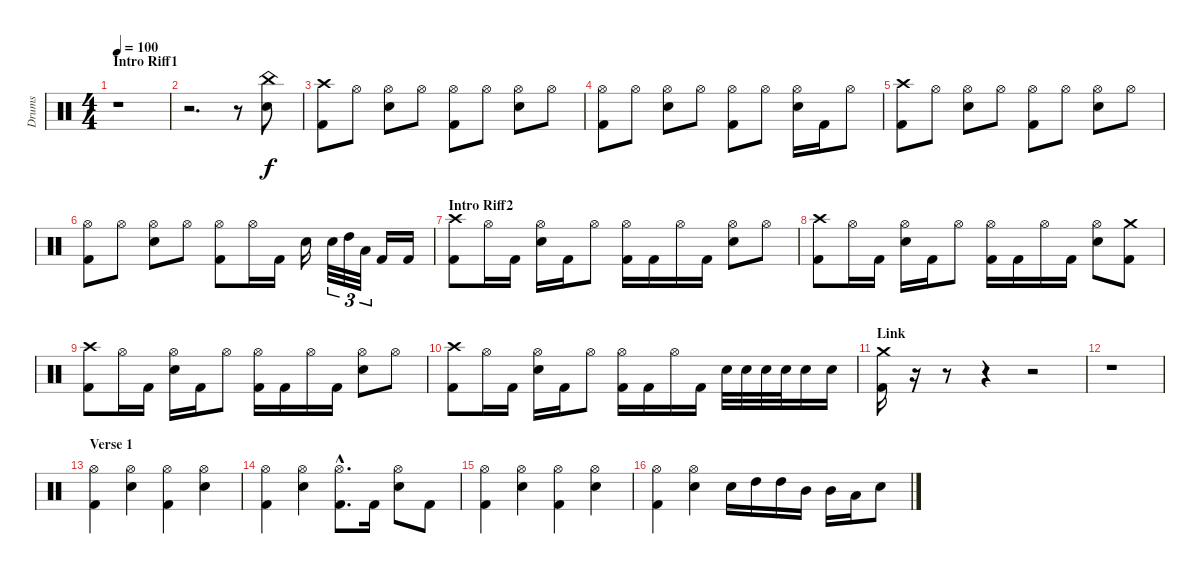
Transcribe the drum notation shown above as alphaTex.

\track ("Drums" "Drums") {instrument percussion}
\staff {score}
\articulation defaults
\ts (4 4)
\section ("" "Intro Riff1")
\tempo 100
\clef neutral
\ks c
r.1{dy f} |
r.2{d} r.8 ("China (hit)" "Snare (hit) 2").8 |
("Crash high (hit)" "Kick (hit) 2").8 "Hi-Hat (open)".8 ("Hi-Hat (open)" "Snare (hit) 2").8 "Hi-Hat (open)".8 ("Hi-Hat (open)" "Kick (hit) 2").8 "Hi-Hat (open)".8 ("Hi-Hat (open)" "Snare (hit) 2").8 "Hi-Hat (open)".8 |
("Hi-Hat (open)" "Kick (hit) 2").8 "Hi-Hat (open)".8 ("Hi-Hat (open)" "Snare (hit) 2").8 "Hi-Hat (open)".8 ("Hi-Hat (open)" "Kick (hit) 2").8 "Hi-Hat (open)".8 ("Hi-Hat (open)" "Snare (hit) 2").16 "Kick (hit) 2".16 "Hi-Hat (open)".8 |
("Crash high (hit)" "Kick (hit) 2").8 "Hi-Hat (open)".8 ("Hi-Hat (open)" "Snare (hit) 2").8 "Hi-Hat (open)".8 ("Hi-Hat (open)" "Kick (hit) 2").8 "Hi-Hat (open)".8 ("Hi-Hat (open)" "Snare (hit) 2").8 "Hi-Hat (open)".8 |
("Hi-Hat (open)" "Kick (hit) 2").8 "Hi-Hat (open)".8 ("Hi-Hat (open)" "Snare (hit) 2").8 "Hi-Hat (open)".8 ("Hi-Hat (open)" "Kick (hit) 2").8 "Hi-Hat (open)".16 "Kick (hit) 2".16 "Snare (hit) 2".16 "Snare (hit) 2".32{tu (3 2)} "High Tom (hit)".32{tu (3 2)} "Low Tom (hit)".32{tu (3 2)} "Kick (hit) 2".16 "Kick (hit) 2".16 |
\section ("" "Intro Riff2")
("Crash high (hit)" "Kick (hit) 2").8 "Hi-Hat (open)".16 "Kick (hit) 2".16 ("Hi-Hat (open)" "Snare (hit) 2").16 "Kick (hit) 2".16 "Hi-Hat (open)".8 ("Hi-Hat (open)" "Kick (hit) 2").16 "Kick (hit) 2".16 "Hi-Hat (open)".16 "Kick (hit) 2".16 ("Hi-Hat (open)" "Snare (hit) 2").8 "Hi-Hat (open)".8 |
("Crash high (hit)" "Kick (hit) 2").8 "Hi-Hat (open)".16 "Kick (hit) 2".16 ("Hi-Hat (open)" "Snare (hit) 2").16 "Kick (hit) 2".16 "Hi-Hat (open)".8 ("Hi-Hat (open)" "Kick (hit) 2").16 "Kick (hit) 2".16 "Hi-Hat (open)".16 "Kick (hit) 2".16 ("Hi-Hat (open)" "Snare (hit) 2").8 ("Crash medium (hit)" "Kick (hit) 2").8 |
("Crash high (hit)" "Kick (hit) 2").8 "Hi-Hat (open)".16 "Kick (hit) 2".16 ("Hi-Hat (open)" "Snare (hit) 2").16 "Kick (hit) 2".16 "Hi-Hat (open)".8 ("Hi-Hat (open)" "Kick (hit) 2").16 "Kick (hit) 2".16 "Hi-Hat (open)".16 "Kick (hit) 2".16 ("Hi-Hat (open)" "Snare (hit) 2").8 "Hi-Hat (open)".8 |
("Crash high (hit)" "Kick (hit) 2").8 "Hi-Hat (open)".16 "Kick (hit) 2".16 ("Hi-Hat (open)" "Snare (hit) 2").16 "Kick (hit) 2".16 "Hi-Hat (open)".8 ("Hi-Hat (open)" "Kick (hit) 2").16 "Kick (hit) 2".16 "Hi-Hat (open)".16 "Kick (hit) 2".16 "Snare (hit) 2".32 "Snare (hit) 2".32 "Snare (hit) 2".32 "Snare (hit) 2".32 "Snare (hit) 2".16 "Snare (hit) 2".16 |
\section ("" "Link")
("Crash medium (hit)" "Kick (hit) 2").16 r.16 r.8 r.4 r.2 |
r.1 |
\section ("" "Verse 1")
("Hi-Hat (open)" "Kick (hit) 2").4 ("Hi-Hat (open)" "Snare (hit) 2").4 ("Hi-Hat (open)" "Kick (hit) 2").4 ("Hi-Hat (open)" "Snare (hit) 2").4 |
("Hi-Hat (open)" "Kick (hit) 2").4 ("Hi-Hat (open)" "Snare (hit) 2").4 ("Hi-Hat (open)"{hac} "Kick (hit) 2"{hac}).8{d} "Kick (hit) 2".16 ("Hi-Hat (open)" "Snare (hit) 2").8 "Kick (hit) 2".8 |
("Hi-Hat (open)" "Kick (hit) 2").4 ("Hi-Hat (open)" "Snare (hit) 2").4 ("Hi-Hat (open)" "Kick (hit) 2").4 ("Hi-Hat (open)" "Snare (hit) 2").4 |
("Hi-Hat (open)" "Kick (hit) 2").4 ("Hi-Hat (open)" "Snare (hit) 2").4 "Snare (hit) 2".16 "High Tom (hit)".16 "High Tom (hit)".16 "Mid Tom (hit)".16 "Mid Tom (hit)".16 "Low Tom (hit)".16 "Snare (hit) 2".8
